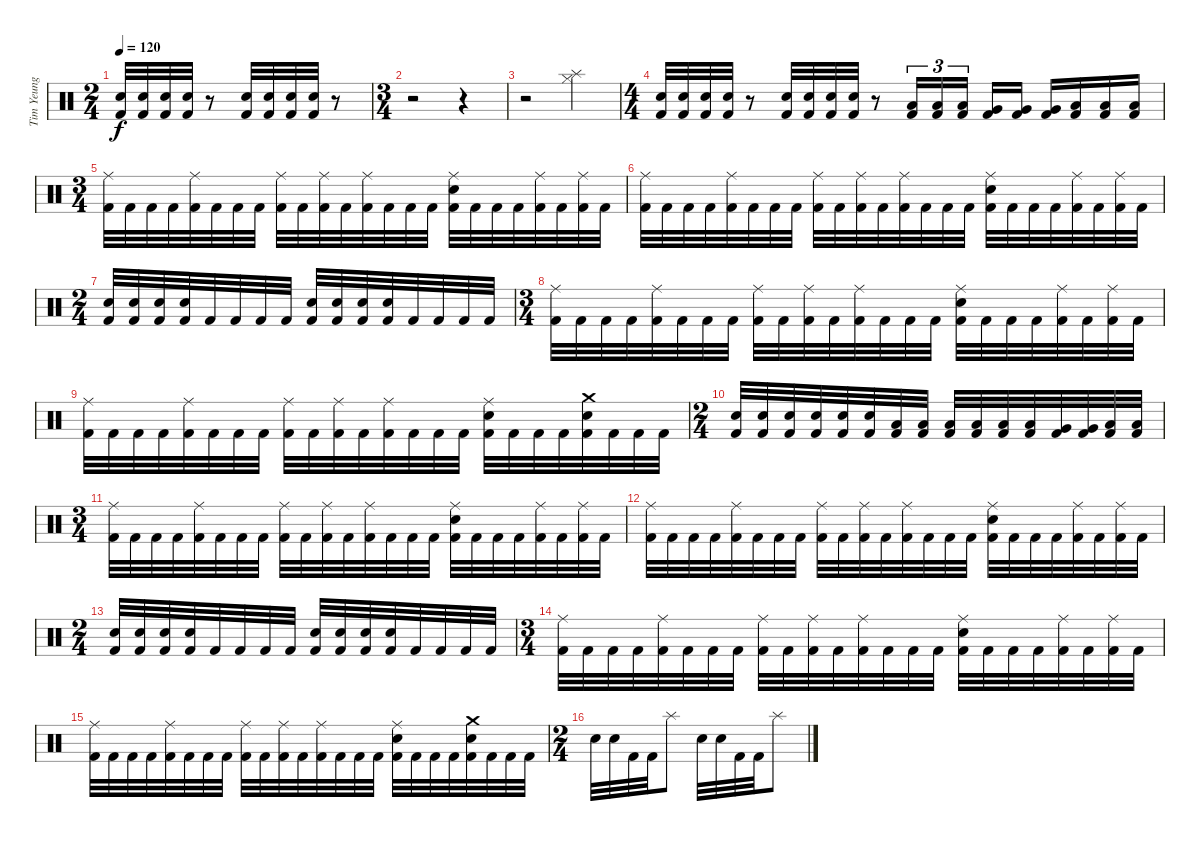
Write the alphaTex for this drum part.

\track ("Tim Yeung" "Tim Yeung") {instrument percussion}
\staff {score}
\articulation defaults
\ts (2 4)
\tempo 120
\clef neutral
\ks c
("Electric Snare (hit)" "Kick (hit) 2").32{dy f} ("Electric Snare (hit)" "Kick (hit) 2").32 ("Electric Snare (hit)" "Kick (hit) 2").32 ("Electric Snare (hit)" "Kick (hit) 2").32 r.8 ("Electric Snare (hit)" "Kick (hit) 2").32 ("Electric Snare (hit)" "Kick (hit) 2").32 ("Electric Snare (hit)" "Kick (hit) 2").32 ("Electric Snare (hit)" "Kick (hit) 2").32 r.8 |
\ts (3 4)
r.2 r.4 |
r.2 ("Splash (hit)" "Hi-Hat (closed)").4 |
\ts (4 4)
("Electric Snare (hit)" "Kick (hit) 2").32 ("Electric Snare (hit)" "Kick (hit) 2").32 ("Electric Snare (hit)" "Kick (hit) 2").32 ("Electric Snare (hit)" "Kick (hit) 2").32 r.8 ("Electric Snare (hit)" "Kick (hit) 2").32 ("Electric Snare (hit)" "Kick (hit) 2").32 ("Electric Snare (hit)" "Kick (hit) 2").32 ("Electric Snare (hit)" "Kick (hit) 2").32 r.8 ("Low Tom (hit)" "Kick (hit) 2").16{tu (3 2)} ("Low Tom (hit)" "Kick (hit) 2").16{tu (3 2)} ("Low Tom (hit)" "Kick (hit) 2").16{tu (3 2) beam splitsecondary} ("Very Low Tom (hit)" "Kick (hit) 2").16 ("Very Low Tom (hit)" "Kick (hit) 2").16 ("Very Low Tom (hit)" "Kick (hit) 2").16 ("Low Floor Tom (hit)" "Kick (hit) 2").16 ("Low Floor Tom (hit)" "Kick (hit) 2").16 ("Low Floor Tom (hit)" "Kick (hit) 2").16 |
\ts (3 4)
("Ride (middle)" "Kick (hit) 2").32 "Kick (hit) 2".32 "Kick (hit) 2".32 "Kick (hit) 2".32 ("Ride (middle)" "Kick (hit) 2").32 "Kick (hit) 2".32 "Kick (hit) 2".32 "Kick (hit) 2".32 ("Ride (middle)" "Kick (hit) 2").32 "Kick (hit) 2".32 ("Ride (middle)" "Kick (hit) 2").32 "Kick (hit) 2".32 ("Ride (middle)" "Kick (hit) 2").32 "Kick (hit) 2".32 "Kick (hit) 2".32 "Kick (hit) 2".32 ("Ride (middle)" "Electric Snare (hit)" "Kick (hit) 2").32 "Kick (hit) 2".32 "Kick (hit) 2".32 "Kick (hit) 2".32 ("Ride (middle)" "Kick (hit) 2").32 "Kick (hit) 2".32 ("Ride (middle)" "Kick (hit) 2").32 "Kick (hit) 2".32 |
("Ride (middle)" "Kick (hit) 2").32 "Kick (hit) 2".32 "Kick (hit) 2".32 "Kick (hit) 2".32 ("Ride (middle)" "Kick (hit) 2").32 "Kick (hit) 2".32 "Kick (hit) 2".32 "Kick (hit) 2".32 ("Ride (middle)" "Kick (hit) 2").32 "Kick (hit) 2".32 ("Ride (middle)" "Kick (hit) 2").32 "Kick (hit) 2".32 ("Ride (middle)" "Kick (hit) 2").32 "Kick (hit) 2".32 "Kick (hit) 2".32 "Kick (hit) 2".32 ("Ride (middle)" "Electric Snare (hit)" "Kick (hit) 2").32 "Kick (hit) 2".32 "Kick (hit) 2".32 "Kick (hit) 2".32 ("Ride (middle)" "Kick (hit) 2").32 "Kick (hit) 2".32 ("Ride (middle)" "Kick (hit) 2").32 "Kick (hit) 2".32 |
\ts (2 4)
("Electric Snare (hit)" "Kick (hit) 2").32 ("Electric Snare (hit)" "Kick (hit) 2").32 ("Electric Snare (hit)" "Kick (hit) 2").32 ("Electric Snare (hit)" "Kick (hit) 2").32 "Kick (hit) 2".32 "Kick (hit) 2".32 "Kick (hit) 2".32 "Kick (hit) 2".32 ("Electric Snare (hit)" "Kick (hit) 2").32 ("Electric Snare (hit)" "Kick (hit) 2").32 ("Electric Snare (hit)" "Kick (hit) 2").32 ("Electric Snare (hit)" "Kick (hit) 2").32 "Kick (hit) 2".32 "Kick (hit) 2".32 "Kick (hit) 2".32 "Kick (hit) 2".32 |
\ts (3 4)
("Ride (middle)" "Kick (hit) 2").32 "Kick (hit) 2".32 "Kick (hit) 2".32 "Kick (hit) 2".32 ("Ride (middle)" "Kick (hit) 2").32 "Kick (hit) 2".32 "Kick (hit) 2".32 "Kick (hit) 2".32 ("Ride (middle)" "Kick (hit) 2").32 "Kick (hit) 2".32 ("Ride (middle)" "Kick (hit) 2").32 "Kick (hit) 2".32 ("Ride (middle)" "Kick (hit) 2").32 "Kick (hit) 2".32 "Kick (hit) 2".32 "Kick (hit) 2".32 ("Ride (middle)" "Electric Snare (hit)" "Kick (hit) 2").32 "Kick (hit) 2".32 "Kick (hit) 2".32 "Kick (hit) 2".32 ("Ride (middle)" "Kick (hit) 2").32 "Kick (hit) 2".32 ("Ride (middle)" "Kick (hit) 2").32 "Kick (hit) 2".32 |
("Ride (middle)" "Kick (hit) 2").32 "Kick (hit) 2".32 "Kick (hit) 2".32 "Kick (hit) 2".32 ("Ride (middle)" "Kick (hit) 2").32 "Kick (hit) 2".32 "Kick (hit) 2".32 "Kick (hit) 2".32 ("Ride (middle)" "Kick (hit) 2").32 "Kick (hit) 2".32 ("Ride (middle)" "Kick (hit) 2").32 "Kick (hit) 2".32 ("Ride (middle)" "Kick (hit) 2").32 "Kick (hit) 2".32 "Kick (hit) 2".32 "Kick (hit) 2".32 ("Ride (middle)" "Electric Snare (hit)" "Kick (hit) 2").32 "Kick (hit) 2".32 "Kick (hit) 2".32 "Kick (hit) 2".32 ("Crash medium (hit)" "Electric Snare (hit)" "Kick (hit) 2").32 "Kick (hit) 2".32 "Kick (hit) 2".32 "Kick (hit) 2".32 |
\ts (2 4)
("Electric Snare (hit)" "Kick (hit) 2").32 ("Electric Snare (hit)" "Kick (hit) 2").32 ("Electric Snare (hit)" "Kick (hit) 2").32 ("Electric Snare (hit)" "Kick (hit) 2").32 ("Electric Snare (hit)" "Kick (hit) 2").32 ("Electric Snare (hit)" "Kick (hit) 2").32 ("Low Tom (hit)" "Kick (hit) 2").32 ("Low Tom (hit)" "Kick (hit) 2").32 ("Low Tom (hit)" "Kick (hit) 2").32 ("Low Tom (hit)" "Kick (hit) 2").32 ("Low Tom (hit)" "Kick (hit) 2").32 ("Low Tom (hit)" "Kick (hit) 2").32 ("Very Low Tom (hit)" "Kick (hit) 2").32 ("Very Low Tom (hit)" "Kick (hit) 2").32 ("Low Floor Tom (hit)" "Kick (hit) 2").32 ("Low Floor Tom (hit)" "Kick (hit) 2").32 |
\ts (3 4)
("Ride (middle)" "Kick (hit) 2").32 "Kick (hit) 2".32 "Kick (hit) 2".32 "Kick (hit) 2".32 ("Ride (middle)" "Kick (hit) 2").32 "Kick (hit) 2".32 "Kick (hit) 2".32 "Kick (hit) 2".32 ("Ride (middle)" "Kick (hit) 2").32 "Kick (hit) 2".32 ("Ride (middle)" "Kick (hit) 2").32 "Kick (hit) 2".32 ("Ride (middle)" "Kick (hit) 2").32 "Kick (hit) 2".32 "Kick (hit) 2".32 "Kick (hit) 2".32 ("Ride (middle)" "Electric Snare (hit)" "Kick (hit) 2").32 "Kick (hit) 2".32 "Kick (hit) 2".32 "Kick (hit) 2".32 ("Ride (middle)" "Kick (hit) 2").32 "Kick (hit) 2".32 ("Ride (middle)" "Kick (hit) 2").32 "Kick (hit) 2".32 |
("Ride (middle)" "Kick (hit) 2").32 "Kick (hit) 2".32 "Kick (hit) 2".32 "Kick (hit) 2".32 ("Ride (middle)" "Kick (hit) 2").32 "Kick (hit) 2".32 "Kick (hit) 2".32 "Kick (hit) 2".32 ("Ride (middle)" "Kick (hit) 2").32 "Kick (hit) 2".32 ("Ride (middle)" "Kick (hit) 2").32 "Kick (hit) 2".32 ("Ride (middle)" "Kick (hit) 2").32 "Kick (hit) 2".32 "Kick (hit) 2".32 "Kick (hit) 2".32 ("Ride (middle)" "Electric Snare (hit)" "Kick (hit) 2").32 "Kick (hit) 2".32 "Kick (hit) 2".32 "Kick (hit) 2".32 ("Ride (middle)" "Kick (hit) 2").32 "Kick (hit) 2".32 ("Ride (middle)" "Kick (hit) 2").32 "Kick (hit) 2".32 |
\ts (2 4)
("Electric Snare (hit)" "Kick (hit) 2").32 ("Electric Snare (hit)" "Kick (hit) 2").32 ("Electric Snare (hit)" "Kick (hit) 2").32 ("Electric Snare (hit)" "Kick (hit) 2").32 "Kick (hit) 2".32 "Kick (hit) 2".32 "Kick (hit) 2".32 "Kick (hit) 2".32 ("Electric Snare (hit)" "Kick (hit) 2").32 ("Electric Snare (hit)" "Kick (hit) 2").32 ("Electric Snare (hit)" "Kick (hit) 2").32 ("Electric Snare (hit)" "Kick (hit) 2").32 "Kick (hit) 2".32 "Kick (hit) 2".32 "Kick (hit) 2".32 "Kick (hit) 2".32 |
\ts (3 4)
("Ride (middle)" "Kick (hit) 2").32 "Kick (hit) 2".32 "Kick (hit) 2".32 "Kick (hit) 2".32 ("Ride (middle)" "Kick (hit) 2").32 "Kick (hit) 2".32 "Kick (hit) 2".32 "Kick (hit) 2".32 ("Ride (middle)" "Kick (hit) 2").32 "Kick (hit) 2".32 ("Ride (middle)" "Kick (hit) 2").32 "Kick (hit) 2".32 ("Ride (middle)" "Kick (hit) 2").32 "Kick (hit) 2".32 "Kick (hit) 2".32 "Kick (hit) 2".32 ("Ride (middle)" "Electric Snare (hit)" "Kick (hit) 2").32 "Kick (hit) 2".32 "Kick (hit) 2".32 "Kick (hit) 2".32 ("Ride (middle)" "Kick (hit) 2").32 "Kick (hit) 2".32 ("Ride (middle)" "Kick (hit) 2").32 "Kick (hit) 2".32 |
("Ride (middle)" "Kick (hit) 2").32 "Kick (hit) 2".32 "Kick (hit) 2".32 "Kick (hit) 2".32 ("Ride (middle)" "Kick (hit) 2").32 "Kick (hit) 2".32 "Kick (hit) 2".32 "Kick (hit) 2".32 ("Ride (middle)" "Kick (hit) 2").32 "Kick (hit) 2".32 ("Ride (middle)" "Kick (hit) 2").32 "Kick (hit) 2".32 ("Ride (middle)" "Kick (hit) 2").32 "Kick (hit) 2".32 "Kick (hit) 2".32 "Kick (hit) 2".32 ("Ride (middle)" "Electric Snare (hit)" "Kick (hit) 2").32 "Kick (hit) 2".32 "Kick (hit) 2".32 "Kick (hit) 2".32 ("Crash medium (hit)" "Electric Snare (hit)" "Kick (hit) 2").32 "Kick (hit) 2".32 "Kick (hit) 2".32 "Kick (hit) 2".32 |
\ts (2 4)
"Electric Snare (hit)".32 "Electric Snare (hit)".32 "Kick (hit) 2".32 "Kick (hit) 2".32 "Splash (hit)".8 "Electric Snare (hit)".32 "Electric Snare (hit)".32 "Kick (hit) 2".32 "Kick (hit) 2".32 "Splash (hit)".8
